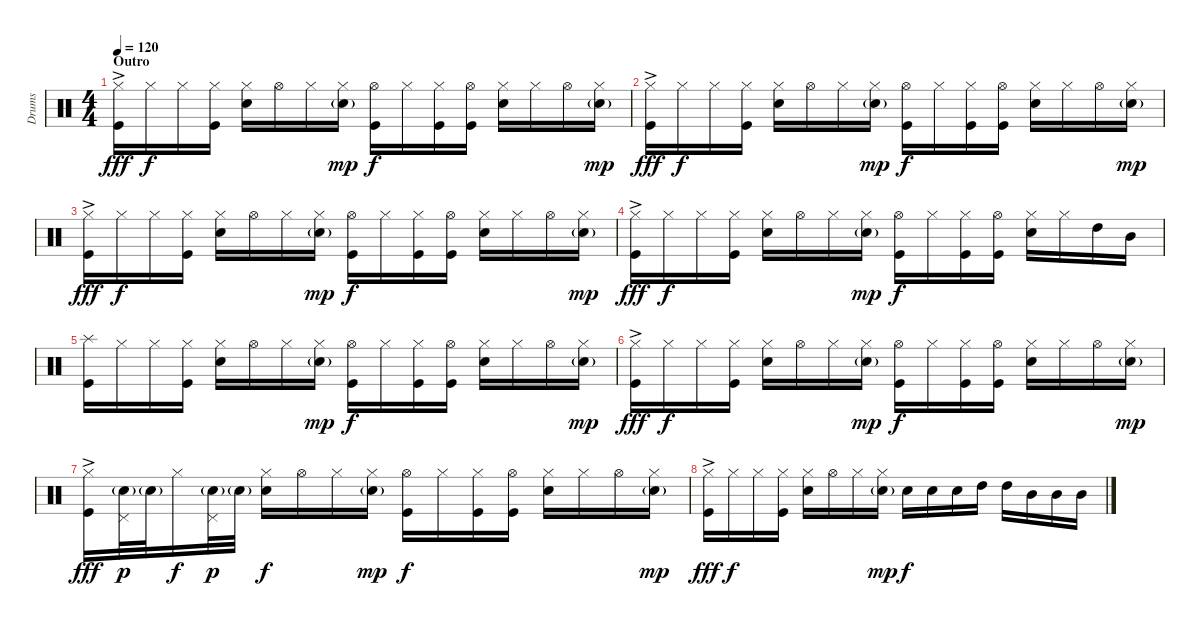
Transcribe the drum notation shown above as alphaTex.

\track ("Drums" "Drums") {instrument percussion}
\staff {score}
\articulation defaults
\ts (4 4)
\section ("" "Outro")
\tempo 120
\clef neutral
\ks c
("Hi-Hat (closed)"{ac} "Kick (hit)").16{dy fff} "Hi-Hat (closed)".16{dy f} "Hi-Hat (closed)".16 ("Hi-Hat (closed)" "Kick (hit)").16 ("Hi-Hat (closed)" "Electric Snare (hit)").16 "Hi-Hat (open)".16 "Hi-Hat (closed)".16 ("Hi-Hat (closed)" "Electric Snare (hit)"{g}).16{dy mp} ("Hi-Hat (open)" "Kick (hit)").16{dy f} "Hi-Hat (closed)".16 ("Hi-Hat (closed)" "Kick (hit)").16 ("Hi-Hat (open)" "Kick (hit)").16 ("Hi-Hat (closed)" "Electric Snare (hit)").16 "Hi-Hat (closed)".16 "Hi-Hat (open)".16 ("Hi-Hat (closed)" "Electric Snare (hit)"{g}).16{dy mp} |
("Hi-Hat (closed)"{ac} "Kick (hit)").16{dy fff} "Hi-Hat (closed)".16{dy f} "Hi-Hat (closed)".16 ("Hi-Hat (closed)" "Kick (hit)").16 ("Hi-Hat (closed)" "Electric Snare (hit)").16 "Hi-Hat (open)".16 "Hi-Hat (closed)".16 ("Hi-Hat (closed)" "Electric Snare (hit)"{g}).16{dy mp} ("Hi-Hat (open)" "Kick (hit)").16{dy f} "Hi-Hat (closed)".16 ("Hi-Hat (closed)" "Kick (hit)").16 ("Hi-Hat (open)" "Kick (hit)").16 ("Hi-Hat (closed)" "Electric Snare (hit)").16 "Hi-Hat (closed)".16 "Hi-Hat (open)".16 ("Hi-Hat (closed)" "Electric Snare (hit)"{g}).16{dy mp} |
("Hi-Hat (closed)"{ac} "Kick (hit)").16{dy fff} "Hi-Hat (closed)".16{dy f} "Hi-Hat (closed)".16 ("Hi-Hat (closed)" "Kick (hit)").16 ("Hi-Hat (closed)" "Electric Snare (hit)").16 "Hi-Hat (open)".16 "Hi-Hat (closed)".16 ("Hi-Hat (closed)" "Electric Snare (hit)"{g}).16{dy mp} ("Hi-Hat (open)" "Kick (hit)").16{dy f} "Hi-Hat (closed)".16 ("Hi-Hat (closed)" "Kick (hit)").16 ("Hi-Hat (open)" "Kick (hit)").16 ("Hi-Hat (closed)" "Electric Snare (hit)").16 "Hi-Hat (closed)".16 "Hi-Hat (open)".16 ("Hi-Hat (closed)" "Electric Snare (hit)"{g}).16{dy mp} |
("Hi-Hat (closed)"{ac} "Kick (hit)").16{dy fff} "Hi-Hat (closed)".16{dy f} "Hi-Hat (closed)".16 ("Hi-Hat (closed)" "Kick (hit)").16 ("Hi-Hat (closed)" "Electric Snare (hit)").16 "Hi-Hat (open)".16 "Hi-Hat (closed)".16 ("Hi-Hat (closed)" "Electric Snare (hit)"{g}).16{dy mp} ("Hi-Hat (open)" "Kick (hit)").16{dy f} "Hi-Hat (closed)".16 ("Hi-Hat (closed)" "Kick (hit)").16 ("Hi-Hat (open)" "Kick (hit)").16 ("Hi-Hat (closed)" "Electric Snare (hit)").16 "Hi-Hat (closed)".16 "High Tom (hit)".16 "Mid Tom (hit)".16 |
("Splash (hit)" "Kick (hit)").16 "Hi-Hat (closed)".16 "Hi-Hat (closed)".16 ("Hi-Hat (closed)" "Kick (hit)").16 ("Hi-Hat (closed)" "Electric Snare (hit)").16 "Hi-Hat (open)".16 "Hi-Hat (closed)".16 ("Hi-Hat (closed)" "Electric Snare (hit)"{g}).16{dy mp} ("Hi-Hat (open)" "Kick (hit)").16{dy f} "Hi-Hat (closed)".16 ("Hi-Hat (closed)" "Kick (hit)").16 ("Hi-Hat (open)" "Kick (hit)").16 ("Hi-Hat (closed)" "Electric Snare (hit)").16 "Hi-Hat (closed)".16 "Hi-Hat (open)".16 ("Hi-Hat (closed)" "Electric Snare (hit)"{g}).16{dy mp} |
("Hi-Hat (closed)"{ac} "Kick (hit)").16{dy fff} "Hi-Hat (closed)".16{dy f} "Hi-Hat (closed)".16 ("Hi-Hat (closed)" "Kick (hit)").16 ("Hi-Hat (closed)" "Electric Snare (hit)").16 "Hi-Hat (open)".16 "Hi-Hat (closed)".16 ("Hi-Hat (closed)" "Electric Snare (hit)"{g}).16{dy mp} ("Hi-Hat (open)" "Kick (hit)").16{dy f} "Hi-Hat (closed)".16 ("Hi-Hat (closed)" "Kick (hit)").16 ("Hi-Hat (open)" "Kick (hit)").16 ("Hi-Hat (closed)" "Electric Snare (hit)").16 "Hi-Hat (closed)".16 "Hi-Hat (open)".16 ("Hi-Hat (closed)" "Electric Snare (hit)"{g}).16{dy mp} |
("Hi-Hat (closed)"{ac} "Kick (hit)").16{dy fff} ("Pedal Hi-Hat (hit)" "Electric Snare (hit)"{g}).32{dy p} "Electric Snare (hit)"{g}.32 "Hi-Hat (closed)".16{dy f} ("Pedal Hi-Hat (hit)" "Electric Snare (hit)"{g}).32{dy p} "Electric Snare (hit)"{g}.32 ("Hi-Hat (closed)" "Electric Snare (hit)").16{dy f} "Hi-Hat (open)".16 "Hi-Hat (closed)".16 ("Hi-Hat (closed)" "Electric Snare (hit)"{g}).16{dy mp} ("Hi-Hat (open)" "Kick (hit)").16{dy f} "Hi-Hat (closed)".16 ("Hi-Hat (closed)" "Kick (hit)").16 ("Hi-Hat (open)" "Kick (hit)").16 ("Hi-Hat (closed)" "Electric Snare (hit)").16 "Hi-Hat (closed)".16 "Hi-Hat (open)".16 ("Hi-Hat (closed)" "Electric Snare (hit)"{g}).16{dy mp} |
("Hi-Hat (closed)"{ac} "Kick (hit)").16{dy fff} "Hi-Hat (closed)".16{dy f} "Hi-Hat (closed)".16 ("Hi-Hat (closed)" "Kick (hit)").16 ("Hi-Hat (closed)" "Electric Snare (hit)").16 "Hi-Hat (open)".16 "Hi-Hat (closed)".16 ("Hi-Hat (closed)" "Electric Snare (hit)"{g}).16{dy mp} "Electric Snare (hit)".16{dy f} "Electric Snare (hit)".16 "Electric Snare (hit)".16 "High Tom (hit)".16 "High Tom (hit)".16 "Mid Tom (hit)".16 "Mid Tom (hit)".16 "Mid Tom (hit)".16
